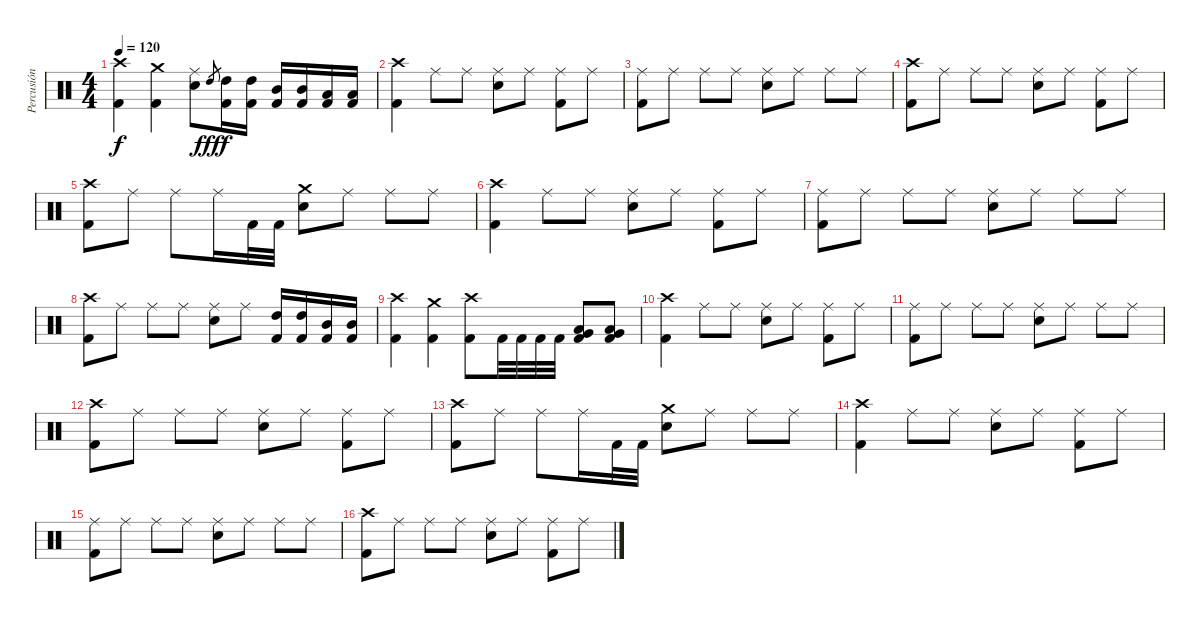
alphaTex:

\track ("Percusión" "Percusión") {instrument percussion}
\staff {score}
\articulation defaults
\ts (4 4)
\tempo 120
\clef neutral
\ks c
("Crash high (hit)" "Kick (hit) 2").4{dy f} ("Crash medium (hit)" "Kick (hit) 2").4 ("Ride (middle)" "Electric Snare (hit)").8 "High Tom (hit)".8{gr dy fff} ("High Tom (hit)" "Kick (hit) 2").16{dy f} ("High Tom (hit)" "Kick (hit) 2").16 ("Mid Tom (hit)" "Kick (hit) 2").16 ("Mid Tom (hit)" "Kick (hit) 2").16 ("Low Tom (hit)" "Kick (hit) 2").16 ("Low Tom (hit)" "Kick (hit) 2").16 |
("Crash high (hit)" "Kick (hit) 2").4 "Ride (middle)".8 "Ride (middle)".8 ("Ride (middle)" "Electric Snare (hit)").8 "Ride (middle)".8 ("Ride (middle)" "Kick (hit) 2").8 "Ride (middle)".8 |
("Ride (middle)" "Kick (hit) 2").8 "Ride (middle)".8 "Ride (middle)".8 "Ride (middle)".8 ("Ride (middle)" "Electric Snare (hit)").8 "Ride (middle)".8 "Ride (middle)".8 "Ride (middle)".8 |
("Crash high (hit)" "Kick (hit) 2").8 "Ride (middle)".8 "Ride (middle)".8 "Ride (middle)".8 ("Ride (middle)" "Electric Snare (hit)").8 "Ride (middle)".8 ("Ride (middle)" "Kick (hit) 2").8 "Ride (middle)".8 |
("Crash high (hit)" "Kick (hit) 2").8 "Ride (middle)".8 "Ride (middle)".8 "Ride (middle)".16 "Kick (hit) 2".32 "Kick (hit) 2".32 ("Crash medium (hit)" "Electric Snare (hit)").8 "Ride (middle)".8 "Ride (middle)".8 "Ride (middle)".8 |
("Crash high (hit)" "Kick (hit) 2").4 "Ride (middle)".8 "Ride (middle)".8 ("Ride (middle)" "Electric Snare (hit)").8 "Ride (middle)".8 ("Ride (middle)" "Kick (hit) 2").8 "Ride (middle)".8 |
("Ride (middle)" "Kick (hit) 2").8 "Ride (middle)".8 "Ride (middle)".8 "Ride (middle)".8 ("Ride (middle)" "Electric Snare (hit)").8 "Ride (middle)".8 "Ride (middle)".8 "Ride (middle)".8 |
("Crash high (hit)" "Kick (hit) 2").8 "Ride (middle)".8 "Ride (middle)".8 "Ride (middle)".8 ("Ride (middle)" "Electric Snare (hit)").8 "Ride (middle)".8 ("High Tom (hit)" "Kick (hit) 2").16 ("High Tom (hit)" "Kick (hit) 2").16 ("Mid Tom (hit)" "Kick (hit) 2").16 ("Mid Tom (hit)" "Kick (hit) 2").16 |
("Crash high (hit)" "Kick (hit) 2").4 ("Crash medium (hit)" "Kick (hit) 2").4 ("Crash high (hit)" "Kick (hit) 2").8 "Kick (hit) 2".32 "Kick (hit) 2".32 "Kick (hit) 2".32 "Kick (hit) 2".32 ("Low Floor Tom (hit)" "Very Low Tom (hit)" "Kick (hit) 2").8 ("Low Floor Tom (hit)" "Very Low Tom (hit)" "Kick (hit) 2").8 |
("Crash high (hit)" "Kick (hit) 2").4 "Ride (middle)".8 "Ride (middle)".8 ("Ride (middle)" "Electric Snare (hit)").8 "Ride (middle)".8 ("Ride (middle)" "Kick (hit) 2").8 "Ride (middle)".8 |
("Ride (middle)" "Kick (hit) 2").8 "Ride (middle)".8 "Ride (middle)".8 "Ride (middle)".8 ("Ride (middle)" "Electric Snare (hit)").8 "Ride (middle)".8 "Ride (middle)".8 "Ride (middle)".8 |
("Crash high (hit)" "Kick (hit) 2").8 "Ride (middle)".8 "Ride (middle)".8 "Ride (middle)".8 ("Ride (middle)" "Electric Snare (hit)").8 "Ride (middle)".8 ("Ride (middle)" "Kick (hit) 2").8 "Ride (middle)".8 |
("Crash high (hit)" "Kick (hit) 2").8 "Ride (middle)".8 "Ride (middle)".8 "Ride (middle)".16 "Kick (hit) 2".32 "Kick (hit) 2".32 ("Crash medium (hit)" "Electric Snare (hit)").8 "Ride (middle)".8 "Ride (middle)".8 "Ride (middle)".8 |
("Crash high (hit)" "Kick (hit) 2").4 "Ride (middle)".8 "Ride (middle)".8 ("Ride (middle)" "Electric Snare (hit)").8 "Ride (middle)".8 ("Ride (middle)" "Kick (hit) 2").8 "Ride (middle)".8 |
("Ride (middle)" "Kick (hit) 2").8 "Ride (middle)".8 "Ride (middle)".8 "Ride (middle)".8 ("Ride (middle)" "Electric Snare (hit)").8 "Ride (middle)".8 "Ride (middle)".8 "Ride (middle)".8 |
("Crash high (hit)" "Kick (hit) 2").8 "Ride (middle)".8 "Ride (middle)".8 "Ride (middle)".8 ("Ride (middle)" "Electric Snare (hit)").8 "Ride (middle)".8 ("Ride (middle)" "Kick (hit) 2").8 "Ride (middle)".8
